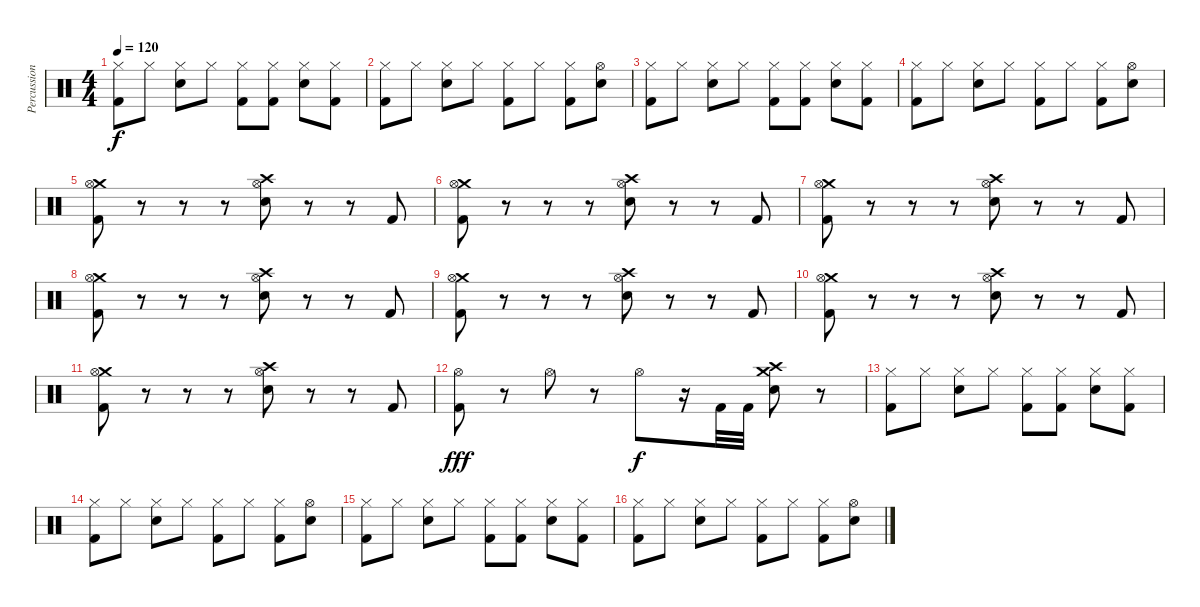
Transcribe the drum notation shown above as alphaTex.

\track ("Percussion" "Percussion") {instrument percussion}
\staff {score}
\articulation defaults
\ts (4 4)
\tempo 120
\clef neutral
\ks c
("Hi-Hat (closed)" "Kick (hit) 2").8{dy f} "Hi-Hat (closed)".8 ("Hi-Hat (closed)" "Snare (hit) 2").8 "Hi-Hat (closed)".8 ("Hi-Hat (closed)" "Kick (hit) 2").8 ("Hi-Hat (closed)" "Kick (hit) 2").8 ("Hi-Hat (closed)" "Snare (hit) 2").8 ("Hi-Hat (closed)" "Kick (hit) 2").8 |
("Hi-Hat (closed)" "Kick (hit) 2").8 "Hi-Hat (closed)".8 ("Hi-Hat (closed)" "Snare (hit) 2").8 "Hi-Hat (closed)".8 ("Hi-Hat (closed)" "Kick (hit) 2").8 "Hi-Hat (closed)".8 ("Hi-Hat (closed)" "Kick (hit) 2").8 ("Hi-Hat (open)" "Snare (hit) 2").8 |
("Hi-Hat (closed)" "Kick (hit) 2").8 "Hi-Hat (closed)".8 ("Hi-Hat (closed)" "Snare (hit) 2").8 "Hi-Hat (closed)".8 ("Hi-Hat (closed)" "Kick (hit) 2").8 ("Hi-Hat (closed)" "Kick (hit) 2").8 ("Hi-Hat (closed)" "Snare (hit) 2").8 ("Hi-Hat (closed)" "Kick (hit) 2").8 |
("Hi-Hat (closed)" "Kick (hit) 2").8 "Hi-Hat (closed)".8 ("Hi-Hat (closed)" "Snare (hit) 2").8 "Hi-Hat (closed)".8 ("Hi-Hat (closed)" "Kick (hit) 2").8 "Hi-Hat (closed)".8 ("Hi-Hat (closed)" "Kick (hit) 2").8 ("Hi-Hat (open)" "Snare (hit) 2").8 |
("Crash medium (hit)" "Hi-Hat (open)" "Kick (hit) 2").8 r.8 r.8 r.8 ("Crash high (hit)" "Hi-Hat (open)" "Snare (hit) 2").8 r.8 r.8 "Kick (hit) 2".8 |
("Crash medium (hit)" "Hi-Hat (open)" "Kick (hit) 2").8 r.8 r.8 r.8 ("Crash high (hit)" "Hi-Hat (open)" "Snare (hit) 2").8 r.8 r.8 "Kick (hit) 2".8 |
("Crash medium (hit)" "Hi-Hat (open)" "Kick (hit) 2").8 r.8 r.8 r.8 ("Crash high (hit)" "Hi-Hat (open)" "Snare (hit) 2").8 r.8 r.8 "Kick (hit) 2".8 |
("Crash medium (hit)" "Hi-Hat (open)" "Kick (hit) 2").8 r.8 r.8 r.8 ("Crash high (hit)" "Hi-Hat (open)" "Snare (hit) 2").8 r.8 r.8 "Kick (hit) 2".8 |
("Crash medium (hit)" "Hi-Hat (open)" "Kick (hit) 2").8 r.8 r.8 r.8 ("Crash high (hit)" "Hi-Hat (open)" "Snare (hit) 2").8 r.8 r.8 "Kick (hit) 2".8 |
("Crash medium (hit)" "Hi-Hat (open)" "Kick (hit) 2").8 r.8 r.8 r.8 ("Crash high (hit)" "Hi-Hat (open)" "Snare (hit) 2").8 r.8 r.8 "Kick (hit) 2".8 |
("Crash medium (hit)" "Hi-Hat (open)" "Kick (hit) 2").8 r.8 r.8 r.8 ("Crash high (hit)" "Hi-Hat (open)" "Snare (hit) 2").8 r.8 r.8 "Kick (hit) 2".8 |
("Hi-Hat (open)" "Kick (hit) 2").8{dy fff} r.8 "Hi-Hat (open)".8 r.8 "Hi-Hat (open)".8{dy f} r.16 "Kick (hit) 2".32 "Kick (hit) 2".32 ("Crash medium (hit)" "Crash high (hit)" "Snare (hit) 2").8 r.8 |
("Hi-Hat (closed)" "Kick (hit) 2").8 "Hi-Hat (closed)".8 ("Hi-Hat (closed)" "Snare (hit) 2").8 "Hi-Hat (closed)".8 ("Hi-Hat (closed)" "Kick (hit) 2").8 ("Hi-Hat (closed)" "Kick (hit) 2").8 ("Hi-Hat (closed)" "Snare (hit) 2").8 ("Hi-Hat (closed)" "Kick (hit) 2").8 |
("Hi-Hat (closed)" "Kick (hit) 2").8 "Hi-Hat (closed)".8 ("Hi-Hat (closed)" "Snare (hit) 2").8 "Hi-Hat (closed)".8 ("Hi-Hat (closed)" "Kick (hit) 2").8 "Hi-Hat (closed)".8 ("Hi-Hat (closed)" "Kick (hit) 2").8 ("Hi-Hat (open)" "Snare (hit) 2").8 |
("Hi-Hat (closed)" "Kick (hit) 2").8 "Hi-Hat (closed)".8 ("Hi-Hat (closed)" "Snare (hit) 2").8 "Hi-Hat (closed)".8 ("Hi-Hat (closed)" "Kick (hit) 2").8 ("Hi-Hat (closed)" "Kick (hit) 2").8 ("Hi-Hat (closed)" "Snare (hit) 2").8 ("Hi-Hat (closed)" "Kick (hit) 2").8 |
("Hi-Hat (closed)" "Kick (hit) 2").8 "Hi-Hat (closed)".8 ("Hi-Hat (closed)" "Snare (hit) 2").8 "Hi-Hat (closed)".8 ("Hi-Hat (closed)" "Kick (hit) 2").8 "Hi-Hat (closed)".8 ("Hi-Hat (closed)" "Kick (hit) 2").8 ("Hi-Hat (open)" "Snare (hit) 2").8
